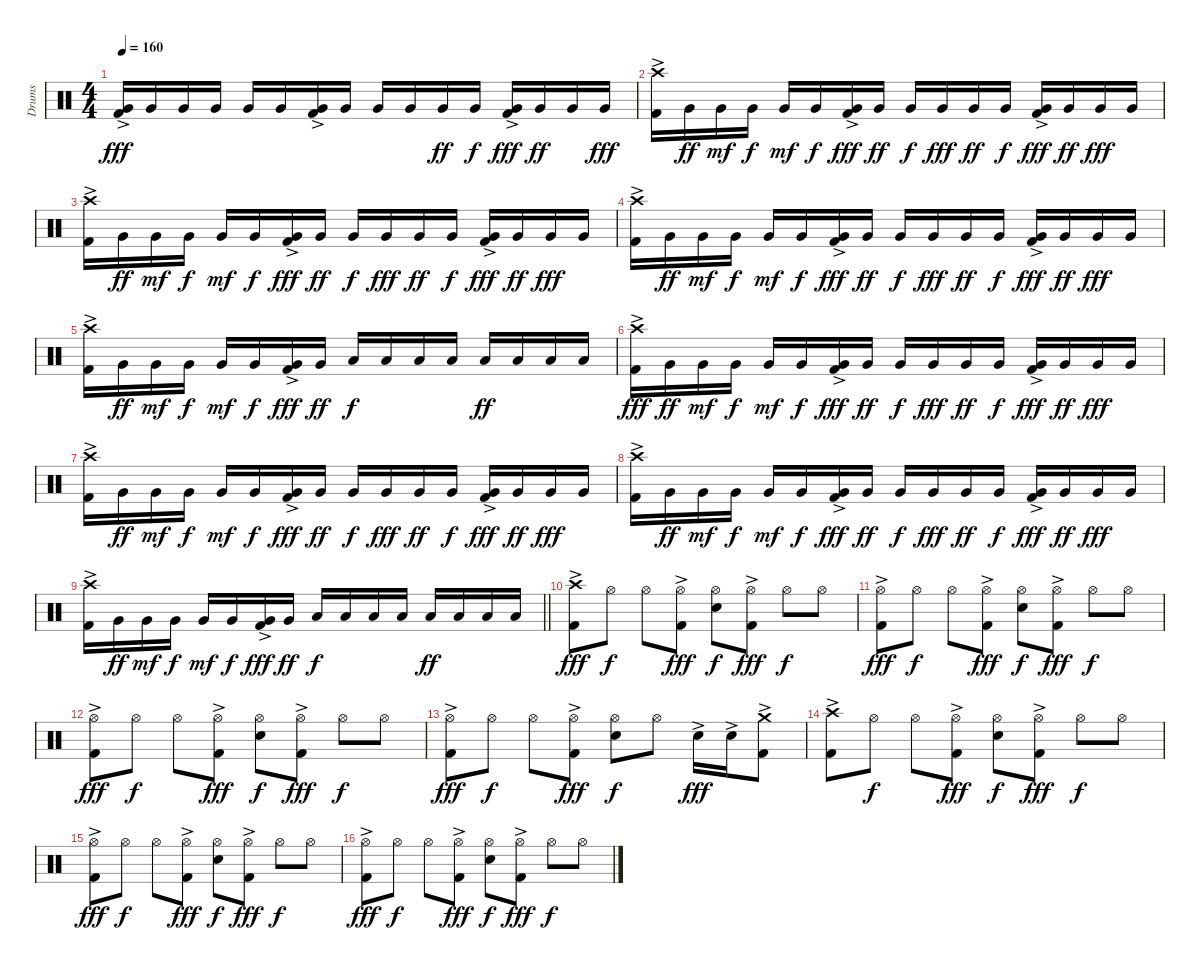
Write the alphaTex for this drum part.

\track ("Drums" "Drums") {instrument percussion}
\staff {score}
\articulation defaults
\ts (4 4)
\tempo 160
\clef neutral
\ks c
("Very Low Tom (hit)"{ac} "Kick (hit) 2"{ac}).16{dy fff} "Very Low Tom (hit)".16 "Very Low Tom (hit)".16 "Very Low Tom (hit)".16 "Very Low Tom (hit)".16 "Very Low Tom (hit)".16 ("Very Low Tom (hit)"{ac} "Kick (hit) 2"{ac}).16 "Very Low Tom (hit)".16 "Very Low Tom (hit)".16 "Very Low Tom (hit)".16 "Very Low Tom (hit)".16{dy ff} "Very Low Tom (hit)".16{dy f} ("Very Low Tom (hit)"{ac} "Kick (hit) 2"{ac}).16{dy fff} "Very Low Tom (hit)".16{dy ff} "Very Low Tom (hit)".16 "Very Low Tom (hit)".16{dy fff} |
("Crash high (hit)" "Kick (hit) 2"{ac}).16 "Very Low Tom (hit)".16{dy ff} "Very Low Tom (hit)".16{dy mf} "Very Low Tom (hit)".16{dy f} "Very Low Tom (hit)".16{dy mf} "Very Low Tom (hit)".16{dy f} ("Very Low Tom (hit)"{ac} "Kick (hit) 2"{ac}).16{dy fff} "Very Low Tom (hit)".16{dy ff} "Very Low Tom (hit)".16{dy f} "Very Low Tom (hit)".16{dy fff} "Very Low Tom (hit)".16{dy ff} "Very Low Tom (hit)".16{dy f} ("Very Low Tom (hit)"{ac} "Kick (hit) 2"{ac}).16{dy fff} "Very Low Tom (hit)".16{dy ff} "Very Low Tom (hit)".16{dy fff} "Very Low Tom (hit)".16 |
("Crash high (hit)" "Kick (hit) 2"{ac}).16 "Very Low Tom (hit)".16{dy ff} "Very Low Tom (hit)".16{dy mf} "Very Low Tom (hit)".16{dy f} "Very Low Tom (hit)".16{dy mf} "Very Low Tom (hit)".16{dy f} ("Very Low Tom (hit)"{ac} "Kick (hit) 2"{ac}).16{dy fff} "Very Low Tom (hit)".16{dy ff} "Very Low Tom (hit)".16{dy f} "Very Low Tom (hit)".16{dy fff} "Very Low Tom (hit)".16{dy ff} "Very Low Tom (hit)".16{dy f} ("Very Low Tom (hit)"{ac} "Kick (hit) 2"{ac}).16{dy fff} "Very Low Tom (hit)".16{dy ff} "Very Low Tom (hit)".16{dy fff} "Very Low Tom (hit)".16 |
("Crash high (hit)" "Kick (hit) 2"{ac}).16 "Very Low Tom (hit)".16{dy ff} "Very Low Tom (hit)".16{dy mf} "Very Low Tom (hit)".16{dy f} "Very Low Tom (hit)".16{dy mf} "Very Low Tom (hit)".16{dy f} ("Very Low Tom (hit)"{ac} "Kick (hit) 2"{ac}).16{dy fff} "Very Low Tom (hit)".16{dy ff} "Very Low Tom (hit)".16{dy f} "Very Low Tom (hit)".16{dy fff} "Very Low Tom (hit)".16{dy ff} "Very Low Tom (hit)".16{dy f} ("Very Low Tom (hit)"{ac} "Kick (hit) 2"{ac}).16{dy fff} "Very Low Tom (hit)".16{dy ff} "Very Low Tom (hit)".16{dy fff} "Very Low Tom (hit)".16 |
("Crash high (hit)" "Kick (hit) 2"{ac}).16 "Very Low Tom (hit)".16{dy ff} "Very Low Tom (hit)".16{dy mf} "Very Low Tom (hit)".16{dy f} "Very Low Tom (hit)".16{dy mf} "Very Low Tom (hit)".16{dy f} ("Very Low Tom (hit)"{ac} "Kick (hit) 2"{ac}).16{dy fff} "Very Low Tom (hit)".16{dy ff} "Low Tom (hit)".16{dy f} "Low Tom (hit)".16 "Low Tom (hit)".16 "Low Tom (hit)".16 "Low Tom (hit)".16{dy ff} "Low Tom (hit)".16 "Low Tom (hit)".16 "Low Tom (hit)".16 |
("Crash high (hit)" "Kick (hit) 2"{ac}).16{dy fff} "Very Low Tom (hit)".16{dy ff} "Very Low Tom (hit)".16{dy mf} "Very Low Tom (hit)".16{dy f} "Very Low Tom (hit)".16{dy mf} "Very Low Tom (hit)".16{dy f} ("Very Low Tom (hit)"{ac} "Kick (hit) 2"{ac}).16{dy fff} "Very Low Tom (hit)".16{dy ff} "Very Low Tom (hit)".16{dy f} "Very Low Tom (hit)".16{dy fff} "Very Low Tom (hit)".16{dy ff} "Very Low Tom (hit)".16{dy f} ("Very Low Tom (hit)"{ac} "Kick (hit) 2"{ac}).16{dy fff} "Very Low Tom (hit)".16{dy ff} "Very Low Tom (hit)".16{dy fff} "Very Low Tom (hit)".16 |
("Crash high (hit)" "Kick (hit) 2"{ac}).16 "Very Low Tom (hit)".16{dy ff} "Very Low Tom (hit)".16{dy mf} "Very Low Tom (hit)".16{dy f} "Very Low Tom (hit)".16{dy mf} "Very Low Tom (hit)".16{dy f} ("Very Low Tom (hit)"{ac} "Kick (hit) 2"{ac}).16{dy fff} "Very Low Tom (hit)".16{dy ff} "Very Low Tom (hit)".16{dy f} "Very Low Tom (hit)".16{dy fff} "Very Low Tom (hit)".16{dy ff} "Very Low Tom (hit)".16{dy f} ("Very Low Tom (hit)"{ac} "Kick (hit) 2"{ac}).16{dy fff} "Very Low Tom (hit)".16{dy ff} "Very Low Tom (hit)".16{dy fff} "Very Low Tom (hit)".16 |
("Crash high (hit)" "Kick (hit) 2"{ac}).16 "Very Low Tom (hit)".16{dy ff} "Very Low Tom (hit)".16{dy mf} "Very Low Tom (hit)".16{dy f} "Very Low Tom (hit)".16{dy mf} "Very Low Tom (hit)".16{dy f} ("Very Low Tom (hit)"{ac} "Kick (hit) 2"{ac}).16{dy fff} "Very Low Tom (hit)".16{dy ff} "Very Low Tom (hit)".16{dy f} "Very Low Tom (hit)".16{dy fff} "Very Low Tom (hit)".16{dy ff} "Very Low Tom (hit)".16{dy f} ("Very Low Tom (hit)"{ac} "Kick (hit) 2"{ac}).16{dy fff} "Very Low Tom (hit)".16{dy ff} "Very Low Tom (hit)".16{dy fff} "Very Low Tom (hit)".16 |
\barLineRight lightlight
("Crash high (hit)" "Kick (hit) 2"{ac}).16 "Very Low Tom (hit)".16{dy ff} "Very Low Tom (hit)".16{dy mf} "Very Low Tom (hit)".16{dy f} "Very Low Tom (hit)".16{dy mf} "Very Low Tom (hit)".16{dy f} ("Very Low Tom (hit)"{ac} "Kick (hit) 2"{ac}).16{dy fff} "Very Low Tom (hit)".16{dy ff} "Low Tom (hit)".16{dy f} "Low Tom (hit)".16 "Low Tom (hit)".16 "Low Tom (hit)".16 "Low Tom (hit)".16{dy ff} "Low Tom (hit)".16 "Low Tom (hit)".16 "Low Tom (hit)".16 |
("Crash high (hit)" "Kick (hit) 2"{ac}).8{dy fff} "Hi-Hat (open)".8{dy f} "Hi-Hat (open)".8 ("Hi-Hat (open)" "Kick (hit) 2"{ac}).8{dy fff} ("Hi-Hat (open)" "Snare (hit) 2").8{dy f} ("Hi-Hat (open)" "Kick (hit) 2"{ac}).8{dy fff} "Hi-Hat (open)".8{dy f} "Hi-Hat (open)".8 |
("Hi-Hat (open)" "Kick (hit) 2"{ac}).8{dy fff} "Hi-Hat (open)".8{dy f} "Hi-Hat (open)".8 ("Hi-Hat (open)" "Kick (hit) 2"{ac}).8{dy fff} ("Hi-Hat (open)" "Snare (hit) 2").8{dy f} ("Hi-Hat (open)" "Kick (hit) 2"{ac}).8{dy fff} "Hi-Hat (open)".8{dy f} "Hi-Hat (open)".8 |
("Hi-Hat (open)" "Kick (hit) 2"{ac}).8{dy fff} "Hi-Hat (open)".8{dy f} "Hi-Hat (open)".8 ("Hi-Hat (open)" "Kick (hit) 2"{ac}).8{dy fff} ("Hi-Hat (open)" "Snare (hit) 2").8{dy f} ("Hi-Hat (open)" "Kick (hit) 2"{ac}).8{dy fff} "Hi-Hat (open)".8{dy f} "Hi-Hat (open)".8 |
("Hi-Hat (open)" "Kick (hit) 2"{ac}).8{dy fff} "Hi-Hat (open)".8{dy f} "Hi-Hat (open)".8 ("Hi-Hat (open)" "Kick (hit) 2"{ac}).8{dy fff} ("Hi-Hat (open)" "Snare (hit) 2").8{dy f} "Hi-Hat (open)".8 "Snare (hit) 2"{ac}.16{dy fff} "Snare (hit) 2"{ac}.16 ("Crash medium (hit)" "Kick (hit) 2"{ac}).8 |
("Crash high (hit)" "Kick (hit) 2"{ac}).8 "Hi-Hat (open)".8{dy f} "Hi-Hat (open)".8 ("Hi-Hat (open)" "Kick (hit) 2"{ac}).8{dy fff} ("Hi-Hat (open)" "Snare (hit) 2").8{dy f} ("Hi-Hat (open)" "Kick (hit) 2"{ac}).8{dy fff} "Hi-Hat (open)".8{dy f} "Hi-Hat (open)".8 |
("Hi-Hat (open)" "Kick (hit) 2"{ac}).8{dy fff} "Hi-Hat (open)".8{dy f} "Hi-Hat (open)".8 ("Hi-Hat (open)" "Kick (hit) 2"{ac}).8{dy fff} ("Hi-Hat (open)" "Snare (hit) 2").8{dy f} ("Hi-Hat (open)" "Kick (hit) 2"{ac}).8{dy fff} "Hi-Hat (open)".8{dy f} "Hi-Hat (open)".8 |
("Hi-Hat (open)" "Kick (hit) 2"{ac}).8{dy fff} "Hi-Hat (open)".8{dy f} "Hi-Hat (open)".8 ("Hi-Hat (open)" "Kick (hit) 2"{ac}).8{dy fff} ("Hi-Hat (open)" "Snare (hit) 2").8{dy f} ("Hi-Hat (open)" "Kick (hit) 2"{ac}).8{dy fff} "Hi-Hat (open)".8{dy f} "Hi-Hat (open)".8
